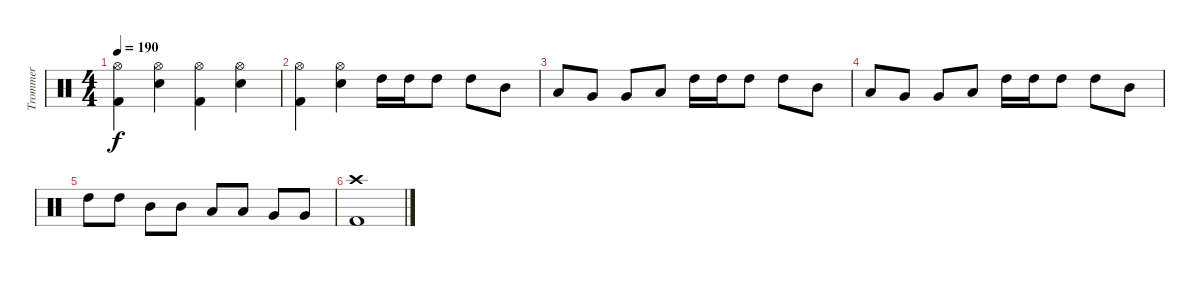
\track ("Trommer" "Trommer") {instrument percussion}
\staff {score}
\articulation defaults
\ts (4 4)
\tempo 190
\clef neutral
\ks c
("Hi-Hat (open)" "Kick (hit) 2").4{dy f} ("Hi-Hat (open)" "Snare (hit) 2").4 ("Hi-Hat (open)" "Kick (hit) 2").4 ("Hi-Hat (open)" "Snare (hit) 2").4 |
("Hi-Hat (open)" "Kick (hit) 2").4 ("Hi-Hat (open)" "Snare (hit) 2").4 "High Tom (hit)".16 "High Tom (hit)".16 "High Tom (hit)".8 "High Tom (hit)".8 "Mid Tom (hit)".8 |
"Low Tom (hit)".8 "Very Low Tom (hit)".8 "Very Low Tom (hit)".8 "Low Floor Tom (hit)".8 "High Tom (hit)".16 "High Tom (hit)".16 "High Tom (hit)".8 "High Tom (hit)".8 "Mid Tom (hit)".8 |
"Low Tom (hit)".8 "Very Low Tom (hit)".8 "Very Low Tom (hit)".8 "Low Floor Tom (hit)".8 "High Tom (hit)".16 "High Tom (hit)".16 "High Tom (hit)".8 "High Tom (hit)".8 "Mid Tom (hit)".8 |
"High Tom (hit)".8 "High Tom (hit)".8 "Mid Tom (hit)".8 "Mid Tom (hit)".8 "Low Tom (hit)".8 "Low Tom (hit)".8 "Very Low Tom (hit)".8 "Very Low Tom (hit)".8 |
("Crash high (hit)" "Kick (hit) 2").1
